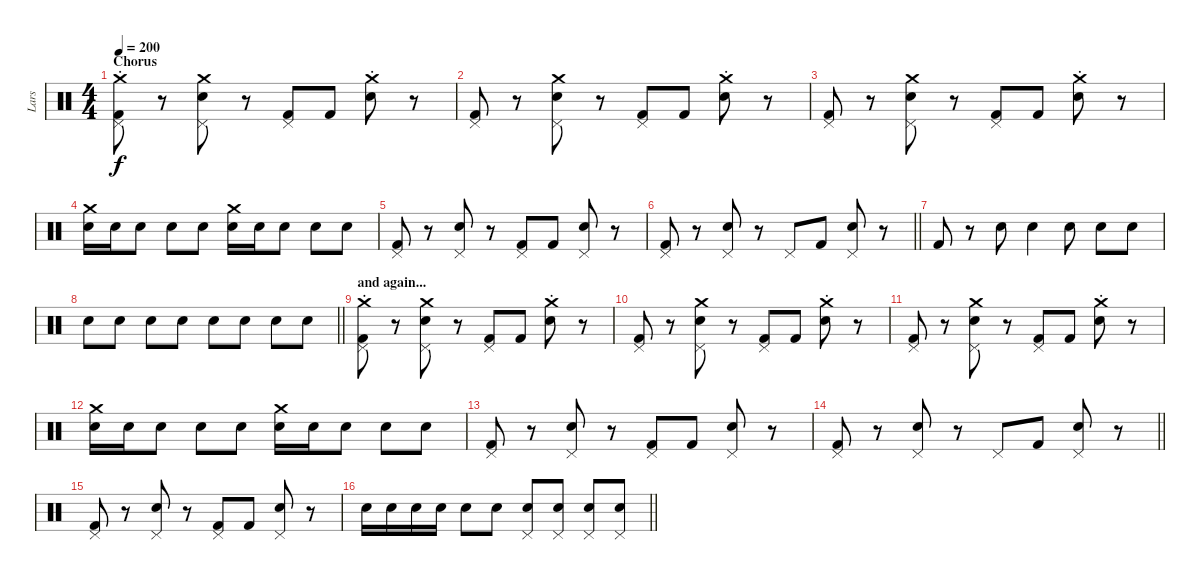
\track ("Lars" "Lars") {instrument percussion}
\staff {score}
\articulation defaults
\ts (4 4)
\section ("" "Chorus")
\tempo 200
\clef neutral
\ks c
("Crash medium (hit)"{st} "Pedal Hi-Hat (hit)" "Kick (hit) 2").8{dy f} r.8 ("Crash medium (hit)" "Pedal Hi-Hat (hit)" "Snare (hit) 2").8 r.8 ("Pedal Hi-Hat (hit)" "Kick (hit) 2").8 "Kick (hit) 2".8 ("Crash medium (hit)"{st} "Snare (hit) 2").8 r.8 |
("Pedal Hi-Hat (hit)" "Kick (hit) 2").8 r.8 ("Crash medium (hit)" "Pedal Hi-Hat (hit)" "Snare (hit) 2").8 r.8 ("Pedal Hi-Hat (hit)" "Kick (hit) 2").8 "Kick (hit) 2".8 ("Crash medium (hit)"{st} "Snare (hit) 2").8 r.8 |
("Pedal Hi-Hat (hit)" "Kick (hit) 2").8 r.8 ("Crash medium (hit)" "Pedal Hi-Hat (hit)" "Snare (hit) 2").8 r.8 ("Pedal Hi-Hat (hit)" "Kick (hit) 2").8 "Kick (hit) 2".8 ("Crash medium (hit)"{st} "Snare (hit) 2").8 r.8 |
("Crash medium (hit)" "Snare (hit) 2").16 "Snare (hit) 2".16 "Snare (hit) 2".8 "Snare (hit) 2".8 "Snare (hit) 2".8 ("Crash medium (hit)" "Snare (hit) 2").16 "Snare (hit) 2".16 "Snare (hit) 2".8 "Snare (hit) 2".8 "Snare (hit) 2".8 |
("Pedal Hi-Hat (hit)" "Kick (hit) 2").8 r.8 ("Pedal Hi-Hat (hit)" "Snare (hit) 2").8 r.8 ("Pedal Hi-Hat (hit)" "Kick (hit) 2").8 "Kick (hit) 2".8 ("Pedal Hi-Hat (hit)" "Snare (hit) 2").8 r.8 |
\barLineRight lightlight
("Pedal Hi-Hat (hit)" "Kick (hit) 2").8 r.8 ("Pedal Hi-Hat (hit)" "Snare (hit) 2").8 r.8 "Pedal Hi-Hat (hit)".8 "Kick (hit) 2".8 ("Pedal Hi-Hat (hit)" "Snare (hit) 2").8 r.8 |
"Kick (hit) 2".8 r.8 "Snare (hit) 2".8 "Snare (hit) 2".4 "Snare (hit) 2".8 "Snare (hit) 2".8 "Snare (hit) 2".8 |
\barLineRight lightlight "Snare (hit) 2".8 "Snare (hit) 2".8 "Snare (hit) 2".8 "Snare (hit) 2".8 "Snare (hit) 2".8 "Snare (hit) 2".8 "Snare (hit) 2".8 "Snare (hit) 2".8
|
\section ("" "and again...")
("Crash medium (hit)"{st} "Pedal Hi-Hat (hit)" "Kick (hit) 2").8 r.8 ("Crash medium (hit)" "Pedal Hi-Hat (hit)" "Snare (hit) 2").8 r.8 ("Pedal Hi-Hat (hit)" "Kick (hit) 2").8 "Kick (hit) 2".8 ("Crash medium (hit)"{st} "Snare (hit) 2").8 r.8 |
("Pedal Hi-Hat (hit)" "Kick (hit) 2").8 r.8 ("Crash medium (hit)" "Pedal Hi-Hat (hit)" "Snare (hit) 2").8 r.8 ("Pedal Hi-Hat (hit)" "Kick (hit) 2").8 "Kick (hit) 2".8 ("Crash medium (hit)"{st} "Snare (hit) 2").8 r.8 |
("Pedal Hi-Hat (hit)" "Kick (hit) 2").8 r.8 ("Crash medium (hit)" "Pedal Hi-Hat (hit)" "Snare (hit) 2").8 r.8 ("Pedal Hi-Hat (hit)" "Kick (hit) 2").8 "Kick (hit) 2".8 ("Crash medium (hit)"{st} "Snare (hit) 2").8 r.8 |
("Crash medium (hit)" "Snare (hit) 2").16 "Snare (hit) 2".16 "Snare (hit) 2".8 "Snare (hit) 2".8 "Snare (hit) 2".8 ("Crash medium (hit)" "Snare (hit) 2").16 "Snare (hit) 2".16 "Snare (hit) 2".8 "Snare (hit) 2".8 "Snare (hit) 2".8 |
("Pedal Hi-Hat (hit)" "Kick (hit) 2").8 r.8 ("Pedal Hi-Hat (hit)" "Snare (hit) 2").8 r.8 ("Pedal Hi-Hat (hit)" "Kick (hit) 2").8 "Kick (hit) 2".8 ("Pedal Hi-Hat (hit)" "Snare (hit) 2").8 r.8 |
\barLineRight lightlight
("Pedal Hi-Hat (hit)" "Kick (hit) 2").8 r.8 ("Pedal Hi-Hat (hit)" "Snare (hit) 2").8 r.8 "Pedal Hi-Hat (hit)".8 "Kick (hit) 2".8 ("Pedal Hi-Hat (hit)" "Snare (hit) 2").8 r.8 |
("Pedal Hi-Hat (hit)" "Kick (hit) 2").8 r.8 ("Pedal Hi-Hat (hit)" "Snare (hit) 2").8 r.8 ("Pedal Hi-Hat (hit)" "Kick (hit) 2").8 "Kick (hit) 2".8 ("Pedal Hi-Hat (hit)" "Snare (hit) 2").8 r.8 |
\barLineRight lightlight "Snare (hit) 2".16 "Snare (hit) 2".16 "Snare (hit) 2".16 "Snare (hit) 2".16 "Snare (hit) 2".8 "Snare (hit) 2".8
("Pedal Hi-Hat (hit)" "Snare (hit) 2").8 ("Pedal Hi-Hat (hit)" "Snare (hit) 2").8 ("Pedal Hi-Hat (hit)" "Snare (hit) 2").8 ("Pedal Hi-Hat (hit)" "Snare (hit) 2").8
